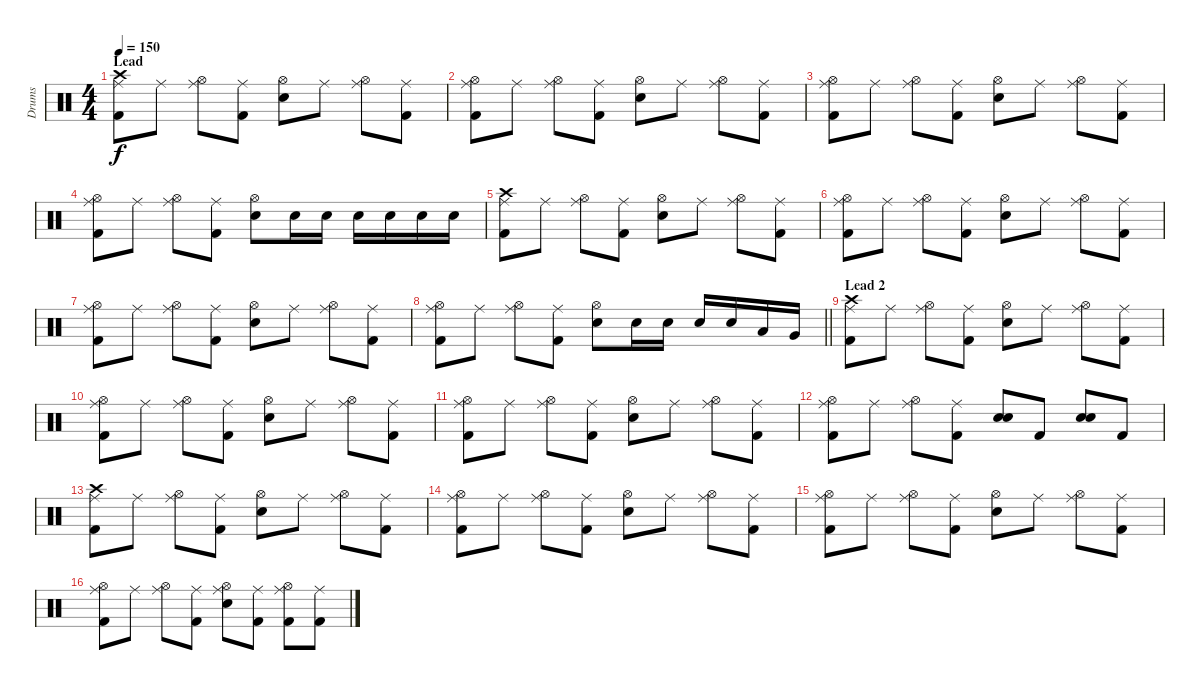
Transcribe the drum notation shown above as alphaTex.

\track ("Drums" "Drums") {instrument percussion}
\staff {score}
\articulation defaults
\ts (4 4)
\section ("" "Lead")
\tempo 150
\clef neutral
\ks c
("Crash high (hit)" "Ride (middle)" "Kick (hit) 2").8{dy f} "Ride (middle)".8 ("Hi-Hat (open)" "Ride (middle)").8 ("Ride (middle)" "Kick (hit) 2").8 ("Hi-Hat (open)" "Electric Snare (hit)").8 "Ride (middle)".8 ("Hi-Hat (open)" "Ride (middle)").8 ("Ride (middle)" "Kick (hit) 2").8 |
("Hi-Hat (open)" "Ride (middle)" "Kick (hit) 2").8 "Ride (middle)".8 ("Hi-Hat (open)" "Ride (middle)").8 ("Ride (middle)" "Kick (hit) 2").8 ("Hi-Hat (open)" "Electric Snare (hit)").8 "Ride (middle)".8 ("Hi-Hat (open)" "Ride (middle)").8 ("Ride (middle)" "Kick (hit) 2").8 |
("Hi-Hat (open)" "Ride (middle)" "Kick (hit) 2").8 "Ride (middle)".8 ("Hi-Hat (open)" "Ride (middle)").8 ("Ride (middle)" "Kick (hit) 2").8 ("Hi-Hat (open)" "Electric Snare (hit)").8 "Ride (middle)".8 ("Hi-Hat (open)" "Ride (middle)").8 ("Ride (middle)" "Kick (hit) 2").8 |
("Hi-Hat (open)" "Ride (middle)" "Kick (hit) 2").8 "Ride (middle)".8 ("Hi-Hat (open)" "Ride (middle)").8 ("Ride (middle)" "Kick (hit) 2").8 ("Hi-Hat (open)" "Electric Snare (hit)").8 "Electric Snare (hit)".16 "Electric Snare (hit)".16 "Electric Snare (hit)".16 "Electric Snare (hit)".16 "Electric Snare (hit)".16 "Electric Snare (hit)".16 |
("Crash high (hit)" "Ride (middle)" "Kick (hit) 2").8 "Ride (middle)".8 ("Hi-Hat (open)" "Ride (middle)").8 ("Ride (middle)" "Kick (hit) 2").8 ("Hi-Hat (open)" "Electric Snare (hit)").8 "Ride (middle)".8 ("Hi-Hat (open)" "Ride (middle)").8 ("Ride (middle)" "Kick (hit) 2").8 |
("Hi-Hat (open)" "Ride (middle)" "Kick (hit) 2").8 "Ride (middle)".8 ("Hi-Hat (open)" "Ride (middle)").8 ("Ride (middle)" "Kick (hit) 2").8 ("Hi-Hat (open)" "Electric Snare (hit)").8 "Ride (middle)".8 ("Hi-Hat (open)" "Ride (middle)").8 ("Ride (middle)" "Kick (hit) 2").8 |
("Hi-Hat (open)" "Ride (middle)" "Kick (hit) 2").8 "Ride (middle)".8 ("Hi-Hat (open)" "Ride (middle)").8 ("Ride (middle)" "Kick (hit) 2").8 ("Hi-Hat (open)" "Electric Snare (hit)").8 "Ride (middle)".8 ("Hi-Hat (open)" "Ride (middle)").8 ("Ride (middle)" "Kick (hit) 2").8 |
\barLineRight lightlight
("Hi-Hat (open)" "Ride (middle)" "Kick (hit) 2").8 "Ride (middle)".8 ("Hi-Hat (open)" "Ride (middle)").8 ("Ride (middle)" "Kick (hit) 2").8 ("Hi-Hat (open)" "Electric Snare (hit)").8 "Electric Snare (hit)".16 "Electric Snare (hit)".16 "Electric Snare (hit)".16 "Electric Snare (hit)".16 "Low Tom (hit)".16 "Very Low Tom (hit)".16 |
\section ("" "Lead 2")
("Crash high (hit)" "Ride (middle)" "Kick (hit) 2").8 "Ride (middle)".8 ("Hi-Hat (open)" "Ride (middle)").8 ("Ride (middle)" "Kick (hit) 2").8 ("Hi-Hat (open)" "Electric Snare (hit)").8 "Ride (middle)".8 ("Hi-Hat (open)" "Ride (middle)").8 ("Ride (middle)" "Kick (hit) 2").8 |
("Hi-Hat (open)" "Ride (middle)" "Kick (hit) 2").8 "Ride (middle)".8 ("Hi-Hat (open)" "Ride (middle)").8 ("Ride (middle)" "Kick (hit) 2").8 ("Hi-Hat (open)" "Electric Snare (hit)").8 "Ride (middle)".8 ("Hi-Hat (open)" "Ride (middle)").8 ("Ride (middle)" "Kick (hit) 2").8 |
("Hi-Hat (open)" "Ride (middle)" "Kick (hit) 2").8 "Ride (middle)".8 ("Hi-Hat (open)" "Ride (middle)").8 ("Ride (middle)" "Kick (hit) 2").8 ("Hi-Hat (open)" "Electric Snare (hit)").8 "Ride (middle)".8 ("Hi-Hat (open)" "Ride (middle)").8 ("Ride (middle)" "Kick (hit) 2").8 |
("Hi-Hat (open)" "Ride (middle)" "Kick (hit) 2").8 "Ride (middle)".8 ("Hi-Hat (open)" "Ride (middle)").8 ("Ride (middle)" "Kick (hit) 2").8 ("Electric Snare (hit)" "Electric Snare (hit)").8{bd 480} "Kick (hit) 2".8 ("Electric Snare (hit)" "Electric Snare (hit)").8{bd 480} "Kick (hit) 2".8 |
("Crash high (hit)" "Ride (middle)" "Kick (hit) 2").8 "Ride (middle)".8 ("Hi-Hat (open)" "Ride (middle)").8 ("Ride (middle)" "Kick (hit) 2").8 ("Hi-Hat (open)" "Electric Snare (hit)").8 "Ride (middle)".8 ("Hi-Hat (open)" "Ride (middle)").8 ("Ride (middle)" "Kick (hit) 2").8 |
("Hi-Hat (open)" "Ride (middle)" "Kick (hit) 2").8 "Ride (middle)".8 ("Hi-Hat (open)" "Ride (middle)").8 ("Ride (middle)" "Kick (hit) 2").8 ("Hi-Hat (open)" "Electric Snare (hit)").8 "Ride (middle)".8 ("Hi-Hat (open)" "Ride (middle)").8 ("Ride (middle)" "Kick (hit) 2").8 |
("Hi-Hat (open)" "Ride (middle)" "Kick (hit) 2").8 "Ride (middle)".8 ("Hi-Hat (open)" "Ride (middle)").8 ("Ride (middle)" "Kick (hit) 2").8 ("Hi-Hat (open)" "Electric Snare (hit)").8 "Ride (middle)".8 ("Hi-Hat (open)" "Ride (middle)").8 ("Ride (middle)" "Kick (hit) 2").8 |
("Hi-Hat (open)" "Ride (middle)" "Kick (hit) 2").8 "Ride (middle)".8 ("Hi-Hat (open)" "Ride (middle)").8 ("Ride (middle)" "Kick (hit) 2").8 ("Hi-Hat (open)" "Ride (middle)" "Electric Snare (hit)").8 ("Ride (middle)" "Kick (hit) 2").8 ("Hi-Hat (open)" "Ride (middle)" "Kick (hit) 2").8 ("Ride (middle)" "Kick (hit) 2").8
